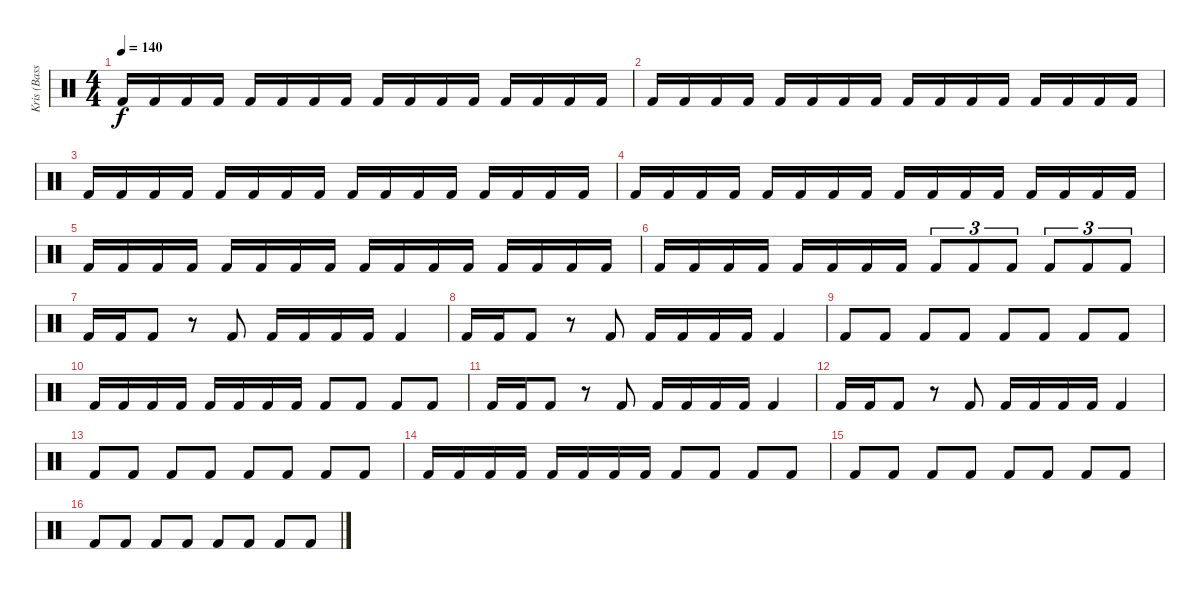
\track ("Kris (Bass Drums)" "Kris (Bass") {instrument percussion}
\staff {score}
\articulation defaults
\ts (4 4)
\tempo 140
\clef neutral
\ks c "Kick (hit) 2".16{dy f} "Kick (hit) 2".16 "Kick (hit) 2".16 "Kick (hit) 2".16 "Kick (hit) 2".16 "Kick (hit) 2".16 "Kick (hit) 2".16 "Kick (hit) 2".16 "Kick (hit) 2".16 "Kick (hit) 2".16 "Kick (hit) 2".16 "Kick (hit) 2".16 "Kick (hit) 2".16 "Kick (hit) 2".16 "Kick (hit) 2".16 "Kick (hit) 2".16
|
"Kick (hit) 2".16 "Kick (hit) 2".16 "Kick (hit) 2".16 "Kick (hit) 2".16 "Kick (hit) 2".16 "Kick (hit) 2".16 "Kick (hit) 2".16 "Kick (hit) 2".16 "Kick (hit) 2".16 "Kick (hit) 2".16 "Kick (hit) 2".16 "Kick (hit) 2".16 "Kick (hit) 2".16 "Kick (hit) 2".16 "Kick (hit) 2".16 "Kick (hit) 2".16 |
"Kick (hit) 2".16 "Kick (hit) 2".16 "Kick (hit) 2".16 "Kick (hit) 2".16 "Kick (hit) 2".16 "Kick (hit) 2".16 "Kick (hit) 2".16 "Kick (hit) 2".16 "Kick (hit) 2".16 "Kick (hit) 2".16 "Kick (hit) 2".16 "Kick (hit) 2".16 "Kick (hit) 2".16 "Kick (hit) 2".16 "Kick (hit) 2".16 "Kick (hit) 2".16 |
"Kick (hit) 2".16 "Kick (hit) 2".16 "Kick (hit) 2".16 "Kick (hit) 2".16 "Kick (hit) 2".16 "Kick (hit) 2".16 "Kick (hit) 2".16 "Kick (hit) 2".16 "Kick (hit) 2".16 "Kick (hit) 2".16 "Kick (hit) 2".16 "Kick (hit) 2".16 "Kick (hit) 2".16 "Kick (hit) 2".16 "Kick (hit) 2".16 "Kick (hit) 2".16 |
"Kick (hit) 2".16 "Kick (hit) 2".16 "Kick (hit) 2".16 "Kick (hit) 2".16 "Kick (hit) 2".16 "Kick (hit) 2".16 "Kick (hit) 2".16 "Kick (hit) 2".16 "Kick (hit) 2".16 "Kick (hit) 2".16 "Kick (hit) 2".16 "Kick (hit) 2".16 "Kick (hit) 2".16 "Kick (hit) 2".16 "Kick (hit) 2".16 "Kick (hit) 2".16 |
"Kick (hit) 2".16 "Kick (hit) 2".16 "Kick (hit) 2".16 "Kick (hit) 2".16 "Kick (hit) 2".16 "Kick (hit) 2".16 "Kick (hit) 2".16 "Kick (hit) 2".16 "Kick (hit) 2".8{tu (3 2)} "Kick (hit) 2".8{tu (3 2)} "Kick (hit) 2".8{tu (3 2)} "Kick (hit) 2".8{tu (3 2)} "Kick (hit) 2".8{tu (3 2)} "Kick (hit) 2".8{tu (3 2)} |
"Kick (hit) 2".16 "Kick (hit) 2".16 "Kick (hit) 2".8 r.8 "Kick (hit) 2".8 "Kick (hit) 2".16 "Kick (hit) 2".16 "Kick (hit) 2".16 "Kick (hit) 2".16 "Kick (hit) 2".4 |
"Kick (hit) 2".16 "Kick (hit) 2".16 "Kick (hit) 2".8 r.8 "Kick (hit) 2".8 "Kick (hit) 2".16 "Kick (hit) 2".16 "Kick (hit) 2".16 "Kick (hit) 2".16 "Kick (hit) 2".4 |
"Kick (hit) 2".8 "Kick (hit) 2".8 "Kick (hit) 2".8 "Kick (hit) 2".8 "Kick (hit) 2".8 "Kick (hit) 2".8 "Kick (hit) 2".8 "Kick (hit) 2".8 |
"Kick (hit) 2".16 "Kick (hit) 2".16 "Kick (hit) 2".16 "Kick (hit) 2".16 "Kick (hit) 2".16 "Kick (hit) 2".16 "Kick (hit) 2".16 "Kick (hit) 2".16 "Kick (hit) 2".8 "Kick (hit) 2".8 "Kick (hit) 2".8 "Kick (hit) 2".8 |
"Kick (hit) 2".16 "Kick (hit) 2".16 "Kick (hit) 2".8 r.8 "Kick (hit) 2".8 "Kick (hit) 2".16 "Kick (hit) 2".16 "Kick (hit) 2".16 "Kick (hit) 2".16 "Kick (hit) 2".4 |
"Kick (hit) 2".16 "Kick (hit) 2".16 "Kick (hit) 2".8 r.8 "Kick (hit) 2".8 "Kick (hit) 2".16 "Kick (hit) 2".16 "Kick (hit) 2".16 "Kick (hit) 2".16 "Kick (hit) 2".4 |
"Kick (hit) 2".8 "Kick (hit) 2".8 "Kick (hit) 2".8 "Kick (hit) 2".8 "Kick (hit) 2".8 "Kick (hit) 2".8 "Kick (hit) 2".8 "Kick (hit) 2".8 |
"Kick (hit) 2".16 "Kick (hit) 2".16 "Kick (hit) 2".16 "Kick (hit) 2".16 "Kick (hit) 2".16 "Kick (hit) 2".16 "Kick (hit) 2".16 "Kick (hit) 2".16 "Kick (hit) 2".8 "Kick (hit) 2".8 "Kick (hit) 2".8 "Kick (hit) 2".8 |
"Kick (hit) 2".8 "Kick (hit) 2".8 "Kick (hit) 2".8 "Kick (hit) 2".8 "Kick (hit) 2".8 "Kick (hit) 2".8 "Kick (hit) 2".8 "Kick (hit) 2".8 |
"Kick (hit) 2".8 "Kick (hit) 2".8 "Kick (hit) 2".8 "Kick (hit) 2".8 "Kick (hit) 2".8 "Kick (hit) 2".8 "Kick (hit) 2".8 "Kick (hit) 2".8
